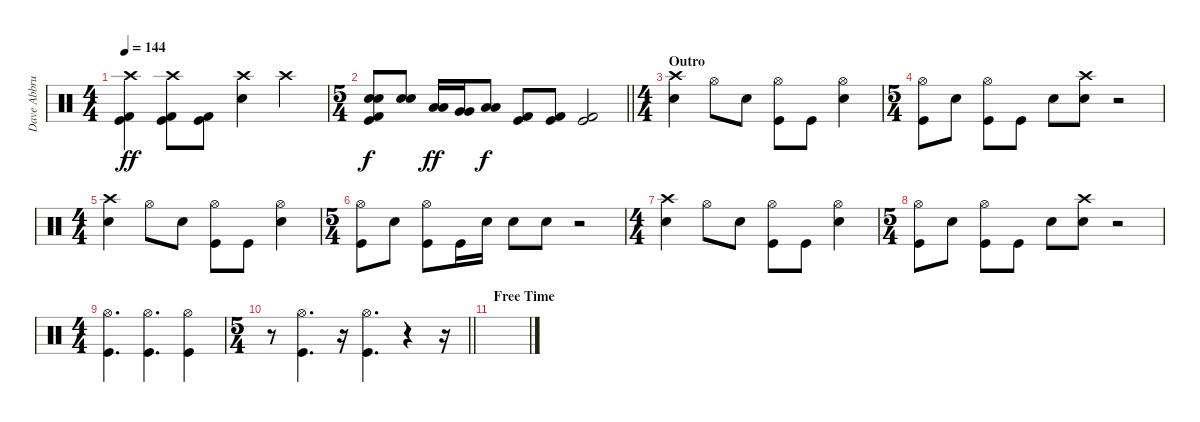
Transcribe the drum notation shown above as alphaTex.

\track ("Dave Abbruzzese" "Dave Abbru") {instrument percussion}
\staff {score}
\articulation defaults
\ts (4 4)
\tempo 144
\clef neutral
\ks c
("Crash high (hit)" "Kick (hit)" "Kick (hit) 2").4{dy ff} ("Crash high (hit)" "Kick (hit)" "Kick (hit) 2").8 ("Kick (hit)" "Kick (hit) 2").8 ("Crash high (hit)" "Electric Snare (hit)").4 "Crash high (hit)".4 |
\ts (5 4)
\barLineRight lightlight
("Electric Snare (hit)" "Electric Snare (hit)" "Kick (hit)" "Kick (hit) 2").8{dy f} ("Electric Snare (hit)" "Electric Snare (hit)").8 ("Low Tom (hit)" "Low Tom (hit)").16{dy ff} ("Very Low Tom (hit)" "Very Low Tom (hit)").16 ("Low Floor Tom (hit)" "Low Floor Tom (hit)").8{dy f} ("Kick (hit)" "Kick (hit) 2").8 ("Kick (hit)" "Kick (hit) 2").8 ("Kick (hit)" "Kick (hit) 2").2 |
\ts (4 4)
\section ("" "Outro")
("Crash high (hit)" "Electric Snare (hit)").4 "Hi-Hat (open)".8 "Electric Snare (hit)".8 ("Hi-Hat (open)" "Kick (hit)").8 "Kick (hit)".8 ("Hi-Hat (open)" "Electric Snare (hit)").4 |
\ts (5 4)
("Hi-Hat (open)" "Kick (hit)").8 "Electric Snare (hit)".8 ("Hi-Hat (open)" "Kick (hit)").8 "Kick (hit)".8 "Electric Snare (hit)".8 ("Crash high (hit)" "Electric Snare (hit)").8 r.2 |
\ts (4 4)
("Crash high (hit)" "Electric Snare (hit)").4 "Hi-Hat (open)".8 "Electric Snare (hit)".8 ("Hi-Hat (open)" "Kick (hit)").8 "Kick (hit)".8 ("Hi-Hat (open)" "Electric Snare (hit)").4 |
\ts (5 4)
("Hi-Hat (open)" "Kick (hit)").8 "Electric Snare (hit)".8 ("Hi-Hat (open)" "Kick (hit)").8 "Kick (hit)".16 "Electric Snare (hit)".16 "Electric Snare (hit)".8 "Electric Snare (hit)".8 r.2 |
\ts (4 4)
("Crash high (hit)" "Electric Snare (hit)").4 "Hi-Hat (open)".8 "Electric Snare (hit)".8 ("Hi-Hat (open)" "Kick (hit)").8 "Kick (hit)".8 ("Hi-Hat (open)" "Electric Snare (hit)").4 |
\ts (5 4)
("Hi-Hat (open)" "Kick (hit)").8 "Electric Snare (hit)".8 ("Hi-Hat (open)" "Kick (hit)").8 "Kick (hit)".8 "Electric Snare (hit)".8 ("Crash high (hit)" "Electric Snare (hit)").8 r.2 |
\ts (4 4)
("Hi-Hat (open)" "Kick (hit)").4{d} ("Hi-Hat (open)" "Kick (hit)").4{d} ("Hi-Hat (open)" "Kick (hit)").4 |
\ts (5 4)
\barLineRight lightlight
r.8 ("Hi-Hat (open)" "Kick (hit)").4{d} r.16 ("Hi-Hat (open)" "Kick (hit)").4{d} r.4 r.16 |
\section ("" "Free Time")
